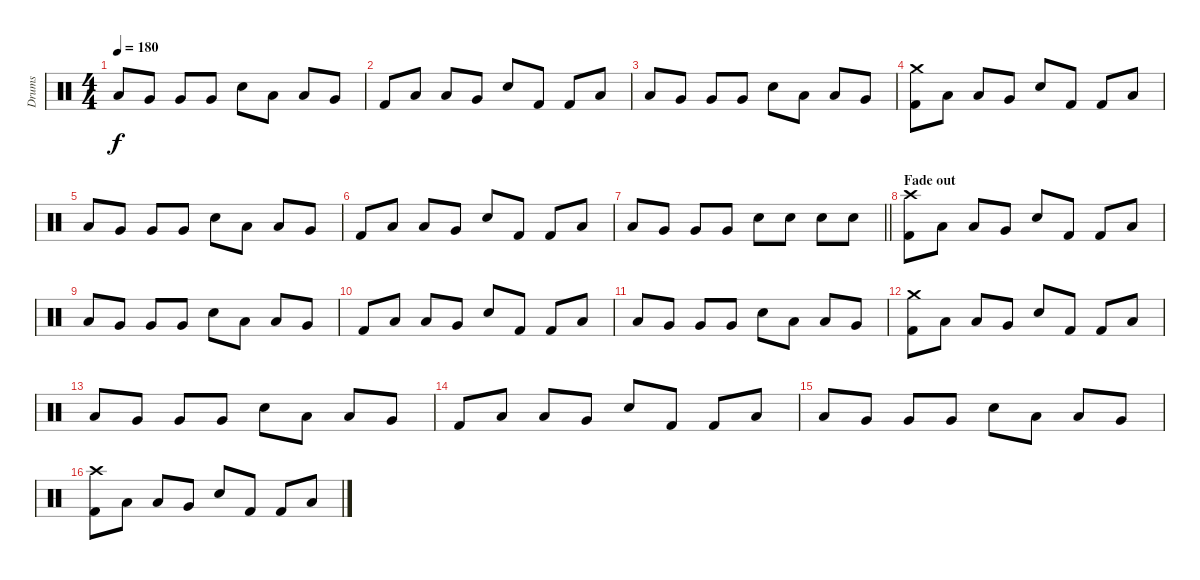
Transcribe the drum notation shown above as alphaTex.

\track ("Drums" "Drums") {instrument percussion}
\staff {score}
\articulation defaults
\ts (4 4)
\tempo 180
\clef neutral
\ks c "Low Tom (hit)".8{dy f} "Very Low Tom (hit)".8 "Very Low Tom (hit)".8 "Very Low Tom (hit)".8 "Electric Snare (hit)".8 "Low Tom (hit)".8 "Low Tom (hit)".8 "Very Low Tom (hit)".8
|
"Kick (hit) 2".8 "Low Tom (hit)".8 "Low Tom (hit)".8 "Very Low Tom (hit)".8 "Electric Snare (hit)".8 "Kick (hit) 2".8 "Kick (hit) 2".8 "Low Tom (hit)".8 |
"Low Tom (hit)".8 "Very Low Tom (hit)".8 "Very Low Tom (hit)".8 "Very Low Tom (hit)".8 "Electric Snare (hit)".8 "Low Tom (hit)".8 "Low Tom (hit)".8 "Very Low Tom (hit)".8 |
("Crash medium (hit)" "Kick (hit) 2").8 "Low Tom (hit)".8 "Low Tom (hit)".8 "Very Low Tom (hit)".8 "Electric Snare (hit)".8 "Kick (hit) 2".8 "Kick (hit) 2".8 "Low Tom (hit)".8 |
"Low Tom (hit)".8 "Very Low Tom (hit)".8 "Very Low Tom (hit)".8 "Very Low Tom (hit)".8 "Electric Snare (hit)".8 "Low Tom (hit)".8 "Low Tom (hit)".8 "Very Low Tom (hit)".8 |
"Kick (hit) 2".8 "Low Tom (hit)".8 "Low Tom (hit)".8 "Very Low Tom (hit)".8 "Electric Snare (hit)".8 "Kick (hit) 2".8 "Kick (hit) 2".8 "Low Tom (hit)".8 |
\barLineRight lightlight "Low Tom (hit)".8 "Very Low Tom (hit)".8 "Very Low Tom (hit)".8 "Very Low Tom (hit)".8 "Electric Snare (hit)".8 "Electric Snare (hit)".8 "Electric Snare (hit)".8 "Electric Snare (hit)".8
|
\section ("" "Fade out")
("Crash high (hit)" "Kick (hit) 2").8{volume 14} "Low Tom (hit)".8 "Low Tom (hit)".8 "Very Low Tom (hit)".8 "Electric Snare (hit)".8 "Kick (hit) 2".8 "Kick (hit) 2".8 "Low Tom (hit)".8 |
"Low Tom (hit)".8 "Very Low Tom (hit)".8 "Very Low Tom (hit)".8 "Very Low Tom (hit)".8 "Electric Snare (hit)".8 "Low Tom (hit)".8 "Low Tom (hit)".8 "Very Low Tom (hit)".8 |
"Kick (hit) 2".8 "Low Tom (hit)".8 "Low Tom (hit)".8 "Very Low Tom (hit)".8 "Electric Snare (hit)".8 "Kick (hit) 2".8 "Kick (hit) 2".8 "Low Tom (hit)".8 |
"Low Tom (hit)".8 "Very Low Tom (hit)".8 "Very Low Tom (hit)".8 "Very Low Tom (hit)".8 "Electric Snare (hit)".8 "Low Tom (hit)".8 "Low Tom (hit)".8 "Very Low Tom (hit)".8 |
("Crash medium (hit)" "Kick (hit) 2").8{volume 12} "Low Tom (hit)".8 "Low Tom (hit)".8 "Very Low Tom (hit)".8 "Electric Snare (hit)".8 "Kick (hit) 2".8 "Kick (hit) 2".8 "Low Tom (hit)".8 |
"Low Tom (hit)".8 "Very Low Tom (hit)".8 "Very Low Tom (hit)".8 "Very Low Tom (hit)".8 "Electric Snare (hit)".8 "Low Tom (hit)".8 "Low Tom (hit)".8 "Very Low Tom (hit)".8 |
"Kick (hit) 2".8 "Low Tom (hit)".8 "Low Tom (hit)".8 "Very Low Tom (hit)".8 "Electric Snare (hit)".8 "Kick (hit) 2".8 "Kick (hit) 2".8 "Low Tom (hit)".8 |
"Low Tom (hit)".8 "Very Low Tom (hit)".8 "Very Low Tom (hit)".8 "Very Low Tom (hit)".8 "Electric Snare (hit)".8 "Low Tom (hit)".8 "Low Tom (hit)".8 "Very Low Tom (hit)".8 |
("Crash high (hit)" "Kick (hit) 2").8{volume 10} "Low Tom (hit)".8 "Low Tom (hit)".8 "Very Low Tom (hit)".8 "Electric Snare (hit)".8 "Kick (hit) 2".8 "Kick (hit) 2".8 "Low Tom (hit)".8
